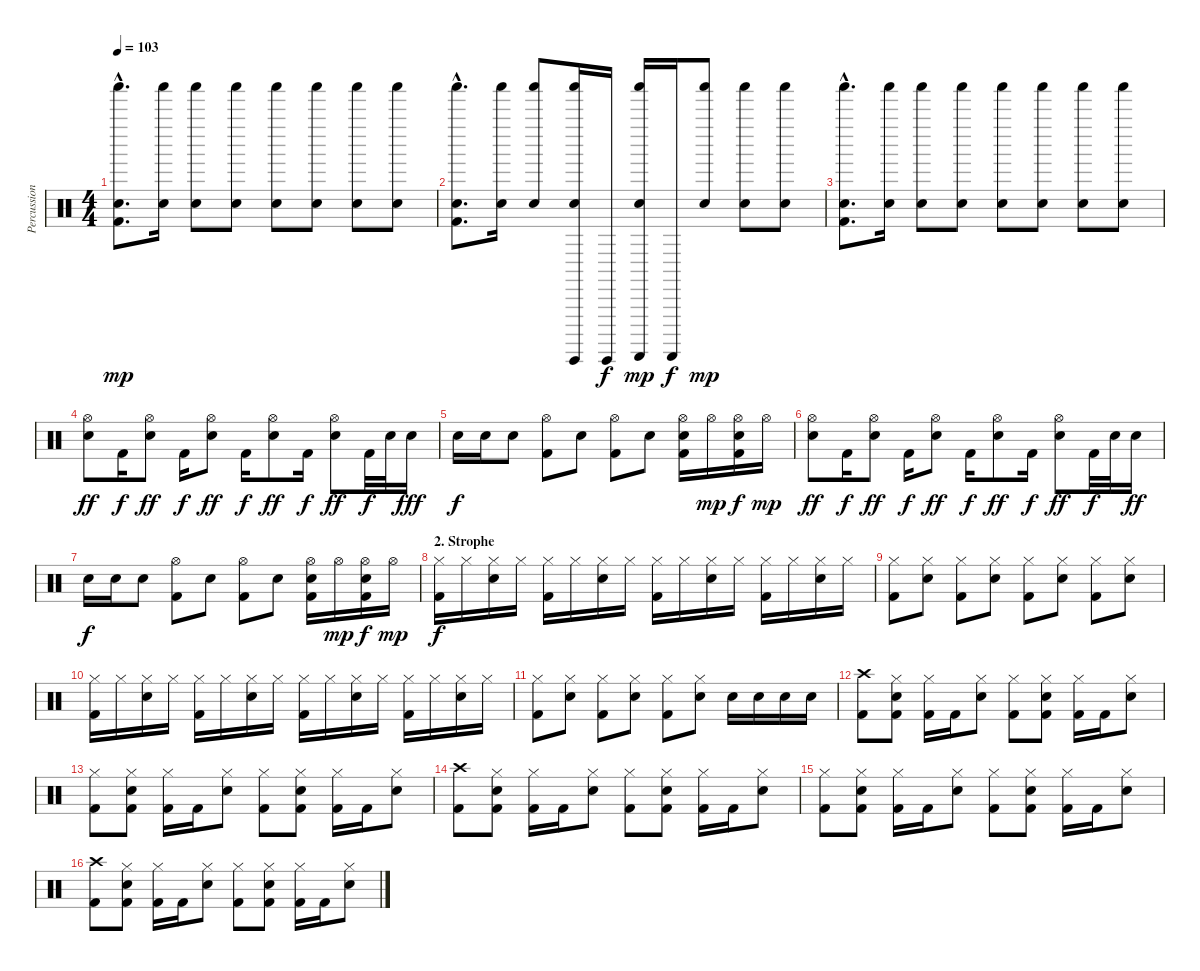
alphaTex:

\track ("Percussion" "Percussion") {instrument percussion}
\staff {score}
\articulation defaults
\ts (4 4)
\tempo 103
\clef neutral
\ks c
("Electric Snare (hit)"{hac} "Shaker (hit)"{hac} "Kick (hit) 2"{hac}).8{d dy mp} ("Electric Snare (hit)" "Shaker (hit)").16 ("Electric Snare (hit)" "Shaker (hit)").8 ("Electric Snare (hit)" "Shaker (hit)").8 ("Electric Snare (hit)" "Shaker (hit)").8 ("Electric Snare (hit)" "Shaker (hit)").8 ("Electric Snare (hit)" "Shaker (hit)").8 ("Electric Snare (hit)" "Shaker (hit)").8 |
("Electric Snare (hit)"{hac} "Shaker (hit)"{hac} "Kick (hit) 2"{hac}).8{d} ("Electric Snare (hit)" "Shaker (hit)").16 ("Electric Snare (hit)" "Shaker (hit)").8 ("Guiro (hit)" "Electric Snare (hit)" "Shaker (hit)").16 "Guiro (hit)".16{dy f} ("Guiro (scrap-return)" "Electric Snare (hit)" "Shaker (hit)").16{dy mp} "Guiro (scrap-return)".16{dy f} ("Electric Snare (hit)" "Shaker (hit)").8{dy mp} ("Electric Snare (hit)" "Shaker (hit)").8 ("Electric Snare (hit)" "Shaker (hit)").8 |
("Electric Snare (hit)"{hac} "Shaker (hit)"{hac} "Kick (hit) 2"{hac}).8{d} ("Electric Snare (hit)" "Shaker (hit)").16 ("Electric Snare (hit)" "Shaker (hit)").8 ("Electric Snare (hit)" "Shaker (hit)").8 ("Electric Snare (hit)" "Shaker (hit)").8 ("Electric Snare (hit)" "Shaker (hit)").8 ("Electric Snare (hit)" "Shaker (hit)").8 ("Electric Snare (hit)" "Shaker (hit)").8 |
("Hi-Hat (open)" "Electric Snare (hit)").8{dy ff volume 16} "Kick (hit) 2".16{dy f} ("Hi-Hat (open)" "Electric Snare (hit)").8{dy ff} "Kick (hit) 2".16{dy f} ("Hi-Hat (open)" "Electric Snare (hit)").8{dy ff} "Kick (hit) 2".16{dy f} ("Hi-Hat (open)" "Electric Snare (hit)").8{dy ff} "Kick (hit) 2".16{dy f} ("Hi-Hat (open)" "Electric Snare (hit)").8{dy ff} "Kick (hit) 2".32{dy f} "Electric Snare (hit)".32 "Electric Snare (hit)".16{dy fff} |
"Snare (hit) 2".16{dy f} "Snare (hit) 2".16 "Snare (hit) 2".8 ("Hi-Hat (open)" "Kick (hit) 2").8 "Electric Snare (hit)".8 ("Hi-Hat (open)" "Kick (hit) 2").8 "Electric Snare (hit)".8 ("Hi-Hat (open)" "Electric Snare (hit)" "Kick (hit) 2").16 "Hi-Hat (open)".16{dy mp} ("Hi-Hat (open)" "Electric Snare (hit)" "Kick (hit) 2").16{dy f} "Hi-Hat (open)".16{dy mp} |
("Hi-Hat (open)" "Electric Snare (hit)").8{dy ff} "Kick (hit) 2".16{dy f} ("Hi-Hat (open)" "Electric Snare (hit)").8{dy ff} "Kick (hit) 2".16{dy f} ("Hi-Hat (open)" "Electric Snare (hit)").8{dy ff} "Kick (hit) 2".16{dy f} ("Hi-Hat (open)" "Electric Snare (hit)").8{dy ff} "Kick (hit) 2".16{dy f} ("Hi-Hat (open)" "Electric Snare (hit)").8{dy ff} "Kick (hit) 2".32{dy f} "Electric Snare (hit)".32 "Electric Snare (hit)".16{dy ff} |
"Snare (hit) 2".16{dy f} "Snare (hit) 2".16 "Snare (hit) 2".8 ("Hi-Hat (open)" "Kick (hit) 2").8 "Electric Snare (hit)".8 ("Hi-Hat (open)" "Kick (hit) 2").8 "Electric Snare (hit)".8 ("Hi-Hat (open)" "Electric Snare (hit)" "Kick (hit) 2").16 "Hi-Hat (open)".16{dy mp} ("Hi-Hat (open)" "Electric Snare (hit)" "Kick (hit) 2").16{dy f} "Hi-Hat (open)".16{dy mp} |
\section ("" "2. Strophe")
("Hi-Hat (closed)" "Kick (hit) 2").16{dy f volume 13} "Hi-Hat (closed)".16 ("Hi-Hat (closed)" "Electric Snare (hit)").16 "Hi-Hat (closed)".16 ("Hi-Hat (closed)" "Kick (hit) 2").16 "Hi-Hat (closed)".16 ("Hi-Hat (closed)" "Electric Snare (hit)").16 "Hi-Hat (closed)".16 ("Hi-Hat (closed)" "Kick (hit) 2").16 "Hi-Hat (closed)".16 ("Hi-Hat (closed)" "Electric Snare (hit)").16 "Hi-Hat (closed)".16 ("Hi-Hat (closed)" "Kick (hit) 2").16 "Hi-Hat (closed)".16 ("Hi-Hat (closed)" "Electric Snare (hit)").16 "Hi-Hat (closed)".16 |
("Hi-Hat (closed)" "Kick (hit) 2").8 ("Hi-Hat (closed)" "Electric Snare (hit)").8 ("Hi-Hat (closed)" "Kick (hit) 2").8 ("Hi-Hat (closed)" "Electric Snare (hit)").8 ("Hi-Hat (closed)" "Kick (hit) 2").8 ("Hi-Hat (closed)" "Electric Snare (hit)").8 ("Hi-Hat (closed)" "Kick (hit) 2").8 ("Hi-Hat (closed)" "Electric Snare (hit)").8 |
("Hi-Hat (closed)" "Kick (hit) 2").16 "Hi-Hat (closed)".16 ("Hi-Hat (closed)" "Electric Snare (hit)").16 "Hi-Hat (closed)".16 ("Hi-Hat (closed)" "Kick (hit) 2").16 "Hi-Hat (closed)".16 ("Hi-Hat (closed)" "Electric Snare (hit)").16 "Hi-Hat (closed)".16 ("Hi-Hat (closed)" "Kick (hit) 2").16 "Hi-Hat (closed)".16 ("Hi-Hat (closed)" "Electric Snare (hit)").16 "Hi-Hat (closed)".16 ("Hi-Hat (closed)" "Kick (hit) 2").16 "Hi-Hat (closed)".16 ("Hi-Hat (closed)" "Electric Snare (hit)").16 "Hi-Hat (closed)".16 |
("Hi-Hat (closed)" "Kick (hit) 2").8 ("Hi-Hat (closed)" "Electric Snare (hit)").8 ("Hi-Hat (closed)" "Kick (hit) 2").8 ("Hi-Hat (closed)" "Electric Snare (hit)").8 ("Hi-Hat (closed)" "Kick (hit) 2").8 ("Hi-Hat (closed)" "Electric Snare (hit)").8 "Electric Snare (hit)".16 "Electric Snare (hit)".16 "Snare (hit) 2".16 "Snare (hit) 2".16 |
("Crash high (hit)" "Kick (hit) 2").8 ("Hi-Hat (closed)" "Electric Snare (hit)" "Kick (hit) 2").8 ("Hi-Hat (closed)" "Kick (hit) 2").16 "Kick (hit) 2".16 ("Hi-Hat (closed)" "Electric Snare (hit)").8 ("Hi-Hat (closed)" "Kick (hit) 2").8 ("Hi-Hat (closed)" "Electric Snare (hit)" "Kick (hit) 2").8 ("Hi-Hat (closed)" "Kick (hit) 2").16 "Kick (hit) 2".16 ("Hi-Hat (closed)" "Electric Snare (hit)").8 |
("Hi-Hat (closed)" "Kick (hit) 2").8 ("Hi-Hat (closed)" "Electric Snare (hit)" "Kick (hit) 2").8 ("Hi-Hat (closed)" "Kick (hit) 2").16 "Kick (hit) 2".16 ("Hi-Hat (closed)" "Electric Snare (hit)").8 ("Hi-Hat (closed)" "Kick (hit) 2").8 ("Hi-Hat (closed)" "Electric Snare (hit)" "Kick (hit) 2").8 ("Hi-Hat (closed)" "Kick (hit) 2").16 "Kick (hit) 2".16 ("Hi-Hat (closed)" "Electric Snare (hit)").8 |
("Crash high (hit)" "Kick (hit) 2").8 ("Hi-Hat (closed)" "Electric Snare (hit)" "Kick (hit) 2").8 ("Hi-Hat (closed)" "Kick (hit) 2").16 "Kick (hit) 2".16 ("Hi-Hat (closed)" "Electric Snare (hit)").8 ("Hi-Hat (closed)" "Kick (hit) 2").8 ("Hi-Hat (closed)" "Electric Snare (hit)" "Kick (hit) 2").8 ("Hi-Hat (closed)" "Kick (hit) 2").16 "Kick (hit) 2".16 ("Hi-Hat (closed)" "Electric Snare (hit)").8 |
("Hi-Hat (closed)" "Kick (hit) 2").8 ("Hi-Hat (closed)" "Electric Snare (hit)" "Kick (hit) 2").8 ("Hi-Hat (closed)" "Kick (hit) 2").16 "Kick (hit) 2".16 ("Hi-Hat (closed)" "Electric Snare (hit)").8 ("Hi-Hat (closed)" "Kick (hit) 2").8 ("Hi-Hat (closed)" "Electric Snare (hit)" "Kick (hit) 2").8 ("Hi-Hat (closed)" "Kick (hit) 2").16 "Kick (hit) 2".16 ("Hi-Hat (closed)" "Electric Snare (hit)").8 |
("Crash high (hit)" "Kick (hit) 2").8 ("Hi-Hat (closed)" "Electric Snare (hit)" "Kick (hit) 2").8 ("Hi-Hat (closed)" "Kick (hit) 2").16 "Kick (hit) 2".16 ("Hi-Hat (closed)" "Electric Snare (hit)").8 ("Hi-Hat (closed)" "Kick (hit) 2").8 ("Hi-Hat (closed)" "Electric Snare (hit)" "Kick (hit) 2").8 ("Hi-Hat (closed)" "Kick (hit) 2").16 "Kick (hit) 2".16 ("Hi-Hat (closed)" "Electric Snare (hit)").8
